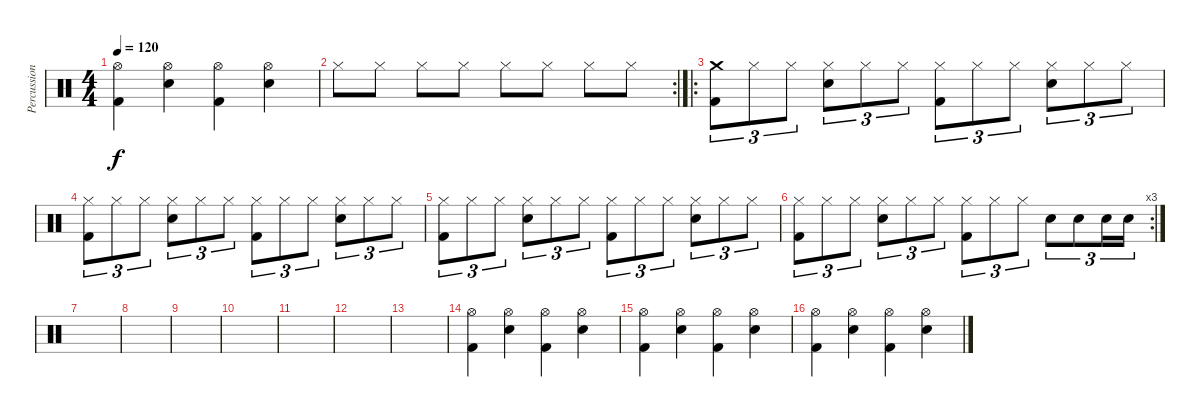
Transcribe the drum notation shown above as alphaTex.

\track ("Percussions" "Percussion") {instrument percussion}
\staff {score}
\articulation defaults
\ts (4 4)
\tempo 120
\clef neutral
\ks c
("Hi-Hat (open)" "Kick (hit) 2").4{dy f} ("Hi-Hat (open)" "Electric Snare (hit)").4 ("Hi-Hat (open)" "Kick (hit) 2").4 ("Hi-Hat (open)" "Electric Snare (hit)").4 |
\rc 2 "Hi-Hat (closed)".8 "Hi-Hat (closed)".8 "Hi-Hat (closed)".8 "Hi-Hat (closed)".8 "Hi-Hat (closed)".8 "Hi-Hat (closed)".8 "Hi-Hat (closed)".8 "Hi-Hat (closed)".8
|
\ro
("Crash medium (hit)" "Kick (hit) 2").8{tu (3 2)} "Hi-Hat (closed)".8{tu (3 2)} "Hi-Hat (closed)".8{tu (3 2)} ("Hi-Hat (closed)" "Electric Snare (hit)").8{tu (3 2)} "Hi-Hat (closed)".8{tu (3 2)} "Hi-Hat (closed)".8{tu (3 2)} ("Hi-Hat (closed)" "Kick (hit) 2").8{tu (3 2)} "Hi-Hat (closed)".8{tu (3 2)} "Hi-Hat (closed)".8{tu (3 2)} ("Hi-Hat (closed)" "Electric Snare (hit)").8{tu (3 2)} "Hi-Hat (closed)".8{tu (3 2)} "Hi-Hat (closed)".8{tu (3 2)} |
("Hi-Hat (closed)" "Kick (hit) 2").8{tu (3 2)} "Hi-Hat (closed)".8{tu (3 2)} "Hi-Hat (closed)".8{tu (3 2)} ("Hi-Hat (closed)" "Electric Snare (hit)").8{tu (3 2)} "Hi-Hat (closed)".8{tu (3 2)} "Hi-Hat (closed)".8{tu (3 2)} ("Hi-Hat (closed)" "Kick (hit) 2").8{tu (3 2)} "Hi-Hat (closed)".8{tu (3 2)} "Hi-Hat (closed)".8{tu (3 2)} ("Hi-Hat (closed)" "Electric Snare (hit)").8{tu (3 2)} "Hi-Hat (closed)".8{tu (3 2)} "Hi-Hat (closed)".8{tu (3 2)} |
("Hi-Hat (closed)" "Kick (hit) 2").8{tu (3 2)} "Hi-Hat (closed)".8{tu (3 2)} "Hi-Hat (closed)".8{tu (3 2)} ("Hi-Hat (closed)" "Electric Snare (hit)").8{tu (3 2)} "Hi-Hat (closed)".8{tu (3 2)} "Hi-Hat (closed)".8{tu (3 2)} ("Hi-Hat (closed)" "Kick (hit) 2").8{tu (3 2)} "Hi-Hat (closed)".8{tu (3 2)} "Hi-Hat (closed)".8{tu (3 2)} ("Hi-Hat (closed)" "Electric Snare (hit)").8{tu (3 2)} "Hi-Hat (closed)".8{tu (3 2)} "Hi-Hat (closed)".8{tu (3 2)} |
\rc 3
("Hi-Hat (closed)" "Kick (hit) 2").8{tu (3 2)} "Hi-Hat (closed)".8{tu (3 2)} "Hi-Hat (closed)".8{tu (3 2)} ("Hi-Hat (closed)" "Electric Snare (hit)").8{tu (3 2)} "Hi-Hat (closed)".8{tu (3 2)} "Hi-Hat (closed)".8{tu (3 2)} ("Hi-Hat (closed)" "Kick (hit) 2").8{tu (3 2)} "Hi-Hat (closed)".8{tu (3 2)} "Hi-Hat (closed)".8{tu (3 2)} "Electric Snare (hit)".8{tu (3 2)} "Electric Snare (hit)".8{tu (3 2)} "Electric Snare (hit)".16{tu (3 2)} "Electric Snare (hit)".16{tu (3 2)} |
|
|
|
|
|
|
|
("Hi-Hat (open)" "Kick (hit) 2").4 ("Hi-Hat (open)" "Electric Snare (hit)").4 ("Hi-Hat (open)" "Kick (hit) 2").4 ("Hi-Hat (open)" "Electric Snare (hit)").4 |
("Hi-Hat (open)" "Kick (hit) 2").4 ("Hi-Hat (open)" "Electric Snare (hit)").4 ("Hi-Hat (open)" "Kick (hit) 2").4 ("Hi-Hat (open)" "Electric Snare (hit)").4 |
("Hi-Hat (open)" "Kick (hit) 2").4 ("Hi-Hat (open)" "Electric Snare (hit)").4 ("Hi-Hat (open)" "Kick (hit) 2").4 ("Hi-Hat (open)" "Electric Snare (hit)").4
